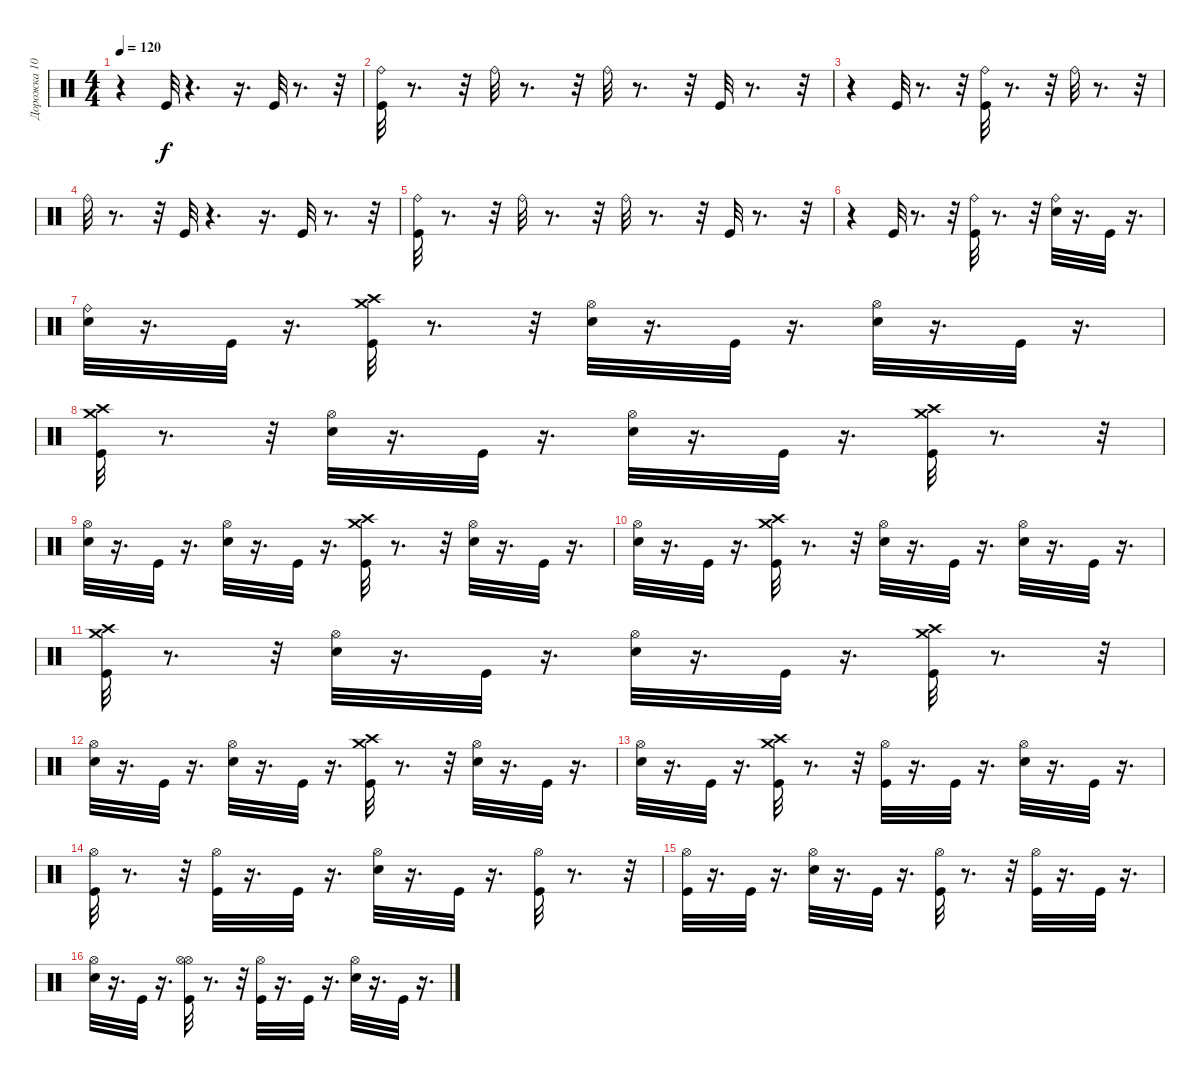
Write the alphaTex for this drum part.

\track ("Дорожка 10" "Дорожка 10") {instrument percussion}
\staff {score}
\articulation defaults
\ts (4 4)
\tempo 120
\clef neutral
\ks c
r.4{dy f} "Kick (hit)".32 r.4{d} r.16{d} "Kick (hit)".32 r.8{d} r.32 |
("Ride (bell)" "Kick (hit)").32 r.8{d} r.32 "Ride (bell)".32 r.8{d} r.32 "Ride (bell)".32 r.8{d} r.32 "Kick (hit)".32 r.8{d} r.32 |
r.4 "Kick (hit)".32 r.8{d} r.32 ("Kick (hit)" "Ride (bell)").32 r.8{d} r.32 "Ride (bell)".32 r.8{d} r.32 |
"Ride (bell)".32 r.8{d} r.32 "Kick (hit)".32 r.4{d} r.16{d} "Kick (hit)".32 r.8{d} r.32 |
("Kick (hit)" "Ride (bell)").32 r.8{d} r.32 "Ride (bell)".32 r.8{d} r.32 "Ride (bell)".32 r.8{d} r.32 "Kick (hit)".32 r.8{d} r.32 |
r.4 "Kick (hit)".32 r.8{d} r.32 ("Kick (hit)" "Ride (bell)").32 r.8{d} r.32 ("Snare (hit) 2" "Ride (bell)").32 r.16{d} "Kick (hit)".32 r.16{d} |
("Snare (hit) 2" "Ride (bell)").32 r.16{d} "Kick (hit)".32 r.16{d} ("Crash high (hit)" "Crash medium (hit)" "Kick (hit)").32 r.8{d} r.32 ("Hi-Hat (open)" "Snare (hit) 2").32 r.16{d} "Kick (hit)".32 r.16{d} ("Hi-Hat (open)" "Snare (hit) 2").32 r.16{d} "Kick (hit)".32 r.16{d} |
("Crash medium (hit)" "Crash high (hit)" "Kick (hit)").32 r.8{d} r.32 ("Hi-Hat (open)" "Snare (hit) 2").32 r.16{d} "Kick (hit)".32 r.16{d} ("Hi-Hat (open)" "Snare (hit) 2").32 r.16{d} "Kick (hit)".32 r.16{d} ("Crash medium (hit)" "Crash high (hit)" "Kick (hit)").32 r.8{d} r.32 |
("Hi-Hat (open)" "Snare (hit) 2").32 r.16{d} "Kick (hit)".32 r.16{d} ("Hi-Hat (open)" "Snare (hit) 2").32 r.16{d} "Kick (hit)".32 r.16{d} ("Crash high (hit)" "Crash medium (hit)" "Kick (hit)").32 r.8{d} r.32 ("Hi-Hat (open)" "Snare (hit) 2").32 r.16{d} "Kick (hit)".32 r.16{d} |
("Hi-Hat (open)" "Snare (hit) 2").32 r.16{d} "Kick (hit)".32 r.16{d} ("Crash medium (hit)" "Crash high (hit)" "Kick (hit)").32 r.8{d} r.32 ("Hi-Hat (open)" "Snare (hit) 2").32 r.16{d} "Kick (hit)".32 r.16{d} ("Hi-Hat (open)" "Snare (hit) 2").32 r.16{d} "Kick (hit)".32 r.16{d} |
("Crash medium (hit)" "Crash high (hit)" "Kick (hit)").32 r.8{d} r.32 ("Hi-Hat (open)" "Snare (hit) 2").32 r.16{d} "Kick (hit)".32 r.16{d} ("Hi-Hat (open)" "Snare (hit) 2").32 r.16{d} "Kick (hit)".32 r.16{d} ("Kick (hit)" "Crash medium (hit)" "Crash high (hit)").32 r.8{d} r.32 |
("Hi-Hat (open)" "Snare (hit) 2").32 r.16{d} "Kick (hit)".32 r.16{d} ("Hi-Hat (open)" "Snare (hit) 2").32 r.16{d} "Kick (hit)".32 r.16{d} ("Crash high (hit)" "Crash medium (hit)" "Kick (hit)").32 r.8{d} r.32 ("Hi-Hat (open)" "Snare (hit) 2").32 r.16{d} "Kick (hit)".32 r.16{d} |
("Hi-Hat (open)" "Snare (hit) 2").32 r.16{d} "Kick (hit)".32 r.16{d} ("Crash high (hit)" "Crash medium (hit)" "Kick (hit)").32 r.8{d} r.32 ("Hi-Hat (open)" "Kick (hit)").32 r.16{d} "Kick (hit)".32 r.16{d} ("Hi-Hat (open)" "Snare (hit) 2").32 r.16{d} "Kick (hit)".32 r.16{d} |
("Hi-Hat (open)" "Kick (hit)").32 r.8{d} r.32 ("Hi-Hat (open)" "Kick (hit)").32 r.16{d} "Kick (hit)".32 r.16{d} ("Hi-Hat (open)" "Snare (hit) 2").32 r.16{d} "Kick (hit)".32 r.16{d} ("Hi-Hat (open)" "Kick (hit)").32 r.8{d} r.32 |
("Hi-Hat (open)" "Kick (hit)").32 r.16{d} "Kick (hit)".32 r.16{d} ("Hi-Hat (open)" "Snare (hit) 2").32 r.16{d} "Kick (hit)".32 r.16{d} ("Hi-Hat (open)" "Kick (hit)").32 r.8{d} r.32 ("Hi-Hat (open)" "Kick (hit)").32 r.16{d} "Kick (hit)".32 r.16{d} |
("Hi-Hat (open)" "Snare (hit) 2").32 r.16{d} "Kick (hit)".32 r.16{d} ("Hi-Hat (open)" "Kick (hit)" "Hi-Hat (open)").32 r.8{d} r.32 ("Hi-Hat (open)" "Kick (hit)").32 r.16{d} "Kick (hit)".32 r.16{d} ("Hi-Hat (open)" "Snare (hit) 2").32 r.16{d} "Kick (hit)".32 r.16{d}
